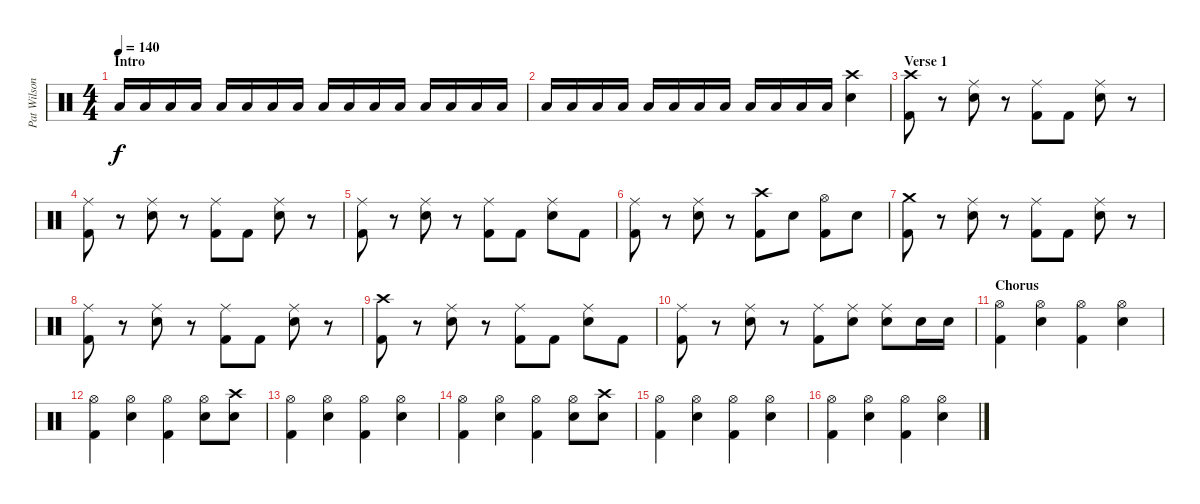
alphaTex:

\track ("Pat Wilson - Drums" "Pat Wilson") {instrument percussion}
\staff {score}
\articulation defaults
\ts (4 4)
\section ("" "Intro")
\tempo 140
\clef neutral
\ks c "Low Tom (hit)".16{dy f} "Low Tom (hit)".16 "Low Tom (hit)".16 "Low Tom (hit)".16 "Low Tom (hit)".16 "Low Tom (hit)".16 "Low Tom (hit)".16 "Low Tom (hit)".16 "Low Tom (hit)".16 "Low Tom (hit)".16 "Low Tom (hit)".16 "Low Tom (hit)".16 "Low Tom (hit)".16 "Low Tom (hit)".16 "Low Tom (hit)".16 "Low Tom (hit)".16
|
"Low Tom (hit)".16 "Low Tom (hit)".16 "Low Tom (hit)".16 "Low Tom (hit)".16 "Low Tom (hit)".16 "Low Tom (hit)".16 "Low Tom (hit)".16 "Low Tom (hit)".16 "Low Tom (hit)".16 "Low Tom (hit)".16 "Low Tom (hit)".16 "Low Tom (hit)".16 ("Electric Snare (hit)" "Crash high (hit)").4 |
\section ("" "Verse 1")
("Crash high (hit)" "Kick (hit) 2").8 r.8 ("Ride (middle)" "Electric Snare (hit)").8 r.8 ("Ride (middle)" "Kick (hit) 2").8 "Kick (hit) 2".8 ("Ride (middle)" "Electric Snare (hit)").8 r.8 |
("Ride (middle)" "Kick (hit) 2").8 r.8 ("Ride (middle)" "Electric Snare (hit)").8 r.8 ("Ride (middle)" "Kick (hit) 2").8 "Kick (hit) 2".8 ("Ride (middle)" "Electric Snare (hit)").8 r.8 |
("Ride (middle)" "Kick (hit) 2").8 r.8 ("Ride (middle)" "Electric Snare (hit)").8 r.8 ("Ride (middle)" "Kick (hit) 2").8 "Kick (hit) 2".8 ("Ride (middle)" "Electric Snare (hit)").8 "Kick (hit) 2".8 |
("Ride (middle)" "Kick (hit) 2").8 r.8 ("Ride (middle)" "Electric Snare (hit)").8 r.8 ("Crash high (hit)" "Kick (hit) 2").8 "Electric Snare (hit)".8 ("Hi-Hat (open)" "Kick (hit) 2").8 "Electric Snare (hit)".8 |
("Crash medium (hit)" "Kick (hit) 2").8 r.8 ("Ride (middle)" "Electric Snare (hit)").8 r.8 ("Ride (middle)" "Kick (hit) 2").8 "Kick (hit) 2".8 ("Ride (middle)" "Electric Snare (hit)").8 r.8 |
("Ride (middle)" "Kick (hit) 2").8 r.8 ("Ride (middle)" "Electric Snare (hit)").8 r.8 ("Ride (middle)" "Kick (hit) 2").8 "Kick (hit) 2".8 ("Ride (middle)" "Electric Snare (hit)").8 r.8 |
("Crash high (hit)" "Kick (hit) 2").8 r.8 ("Ride (middle)" "Electric Snare (hit)").8 r.8 ("Ride (middle)" "Kick (hit) 2").8 "Kick (hit) 2".8 ("Ride (middle)" "Electric Snare (hit)").8 "Kick (hit) 2".8 |
("Ride (middle)" "Kick (hit) 2").8 r.8 ("Ride (middle)" "Electric Snare (hit)").8 r.8 ("Ride (middle)" "Kick (hit) 2").8 ("Ride (middle)" "Electric Snare (hit)").8 ("Ride (middle)" "Electric Snare (hit)").8 "Electric Snare (hit)".16 "Electric Snare (hit)".16 |
\section ("" "Chorus")
("Hi-Hat (open)" "Kick (hit) 2").4 ("Hi-Hat (open)" "Electric Snare (hit)").4 ("Hi-Hat (open)" "Kick (hit) 2").4 ("Hi-Hat (open)" "Electric Snare (hit)").4 |
("Hi-Hat (open)" "Kick (hit) 2").4 ("Hi-Hat (open)" "Electric Snare (hit)").4 ("Hi-Hat (open)" "Kick (hit) 2").4 ("Hi-Hat (open)" "Electric Snare (hit)").8 ("Crash high (hit)" "Electric Snare (hit)").8 |
("Hi-Hat (open)" "Kick (hit) 2").4 ("Hi-Hat (open)" "Electric Snare (hit)").4 ("Hi-Hat (open)" "Kick (hit) 2").4 ("Hi-Hat (open)" "Electric Snare (hit)").4 |
("Hi-Hat (open)" "Kick (hit) 2").4 ("Hi-Hat (open)" "Electric Snare (hit)").4 ("Hi-Hat (open)" "Kick (hit) 2").4 ("Hi-Hat (open)" "Electric Snare (hit)").8 ("Crash high (hit)" "Electric Snare (hit)").8 |
("Hi-Hat (open)" "Kick (hit) 2").4 ("Hi-Hat (open)" "Electric Snare (hit)").4 ("Hi-Hat (open)" "Kick (hit) 2").4 ("Hi-Hat (open)" "Electric Snare (hit)").4 |
("Hi-Hat (open)" "Kick (hit) 2").4 ("Hi-Hat (open)" "Electric Snare (hit)").4 ("Hi-Hat (open)" "Kick (hit) 2").4 ("Hi-Hat (open)" "Electric Snare (hit)").4
